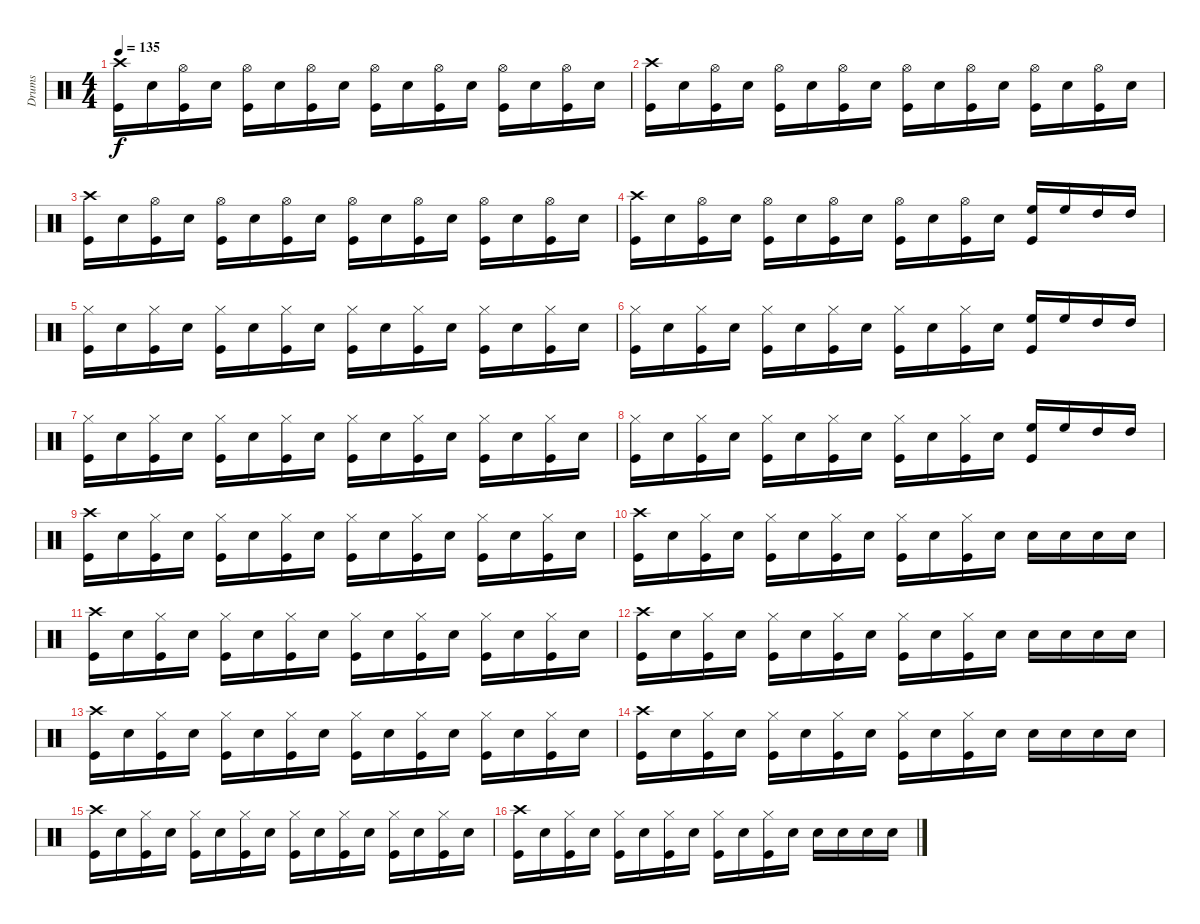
\track ("Drums" "Drums") {instrument percussion}
\staff {score}
\articulation defaults
\ts (4 4)
\tempo 135
\clef neutral
\ks c
("Crash high (hit)" "Kick (hit)").16{dy f} "Snare (hit) 2".16 ("Hi-Hat (open)" "Kick (hit)").16 "Snare (hit) 2".16 ("Hi-Hat (open)" "Kick (hit)").16 "Snare (hit) 2".16 ("Hi-Hat (open)" "Kick (hit)").16 "Snare (hit) 2".16 ("Hi-Hat (open)" "Kick (hit)").16 "Snare (hit) 2".16 ("Hi-Hat (open)" "Kick (hit)").16 "Snare (hit) 2".16 ("Hi-Hat (open)" "Kick (hit)").16 "Snare (hit) 2".16 ("Hi-Hat (open)" "Kick (hit)").16 "Snare (hit) 2".16 |
("Crash high (hit)" "Kick (hit)").16 "Snare (hit) 2".16 ("Hi-Hat (open)" "Kick (hit)").16 "Snare (hit) 2".16 ("Hi-Hat (open)" "Kick (hit)").16 "Snare (hit) 2".16 ("Hi-Hat (open)" "Kick (hit)").16 "Snare (hit) 2".16 ("Hi-Hat (open)" "Kick (hit)").16 "Snare (hit) 2".16 ("Hi-Hat (open)" "Kick (hit)").16 "Snare (hit) 2".16 ("Hi-Hat (open)" "Kick (hit)").16 "Snare (hit) 2".16 ("Hi-Hat (open)" "Kick (hit)").16 "Snare (hit) 2".16 |
("Crash high (hit)" "Kick (hit)").16 "Snare (hit) 2".16 ("Hi-Hat (open)" "Kick (hit)").16 "Snare (hit) 2".16 ("Hi-Hat (open)" "Kick (hit)").16 "Snare (hit) 2".16 ("Hi-Hat (open)" "Kick (hit)").16 "Snare (hit) 2".16 ("Hi-Hat (open)" "Kick (hit)").16 "Snare (hit) 2".16 ("Hi-Hat (open)" "Kick (hit)").16 "Snare (hit) 2".16 ("Hi-Hat (open)" "Kick (hit)").16 "Snare (hit) 2".16 ("Hi-Hat (open)" "Kick (hit)").16 "Snare (hit) 2".16 |
("Crash high (hit)" "Kick (hit)").16 "Snare (hit) 2".16 ("Hi-Hat (open)" "Kick (hit)").16 "Snare (hit) 2".16 ("Hi-Hat (open)" "Kick (hit)").16 "Snare (hit) 2".16 ("Hi-Hat (open)" "Kick (hit)").16 "Snare (hit) 2".16 ("Hi-Hat (open)" "Kick (hit)").16 "Snare (hit) 2".16 ("Hi-Hat (open)" "Kick (hit)").16 "Snare (hit) 2".16 ("High Floor Tom (hit)" "Kick (hit)").16 "High Floor Tom (hit)".16 "High Tom (hit)".16 "High Tom (hit)".16 |
("Hi-Hat (closed)" "Kick (hit)").16 "Snare (hit) 2".16 ("Hi-Hat (closed)" "Kick (hit)").16 "Snare (hit) 2".16 ("Hi-Hat (closed)" "Kick (hit)").16 "Snare (hit) 2".16 ("Hi-Hat (closed)" "Kick (hit)").16 "Snare (hit) 2".16 ("Hi-Hat (closed)" "Kick (hit)").16 "Snare (hit) 2".16 ("Hi-Hat (closed)" "Kick (hit)").16 "Snare (hit) 2".16 ("Hi-Hat (closed)" "Kick (hit)").16 "Snare (hit) 2".16 ("Hi-Hat (closed)" "Kick (hit)").16 "Snare (hit) 2".16 |
("Hi-Hat (closed)" "Kick (hit)").16 "Snare (hit) 2".16 ("Hi-Hat (closed)" "Kick (hit)").16 "Snare (hit) 2".16 ("Hi-Hat (closed)" "Kick (hit)").16 "Snare (hit) 2".16 ("Hi-Hat (closed)" "Kick (hit)").16 "Snare (hit) 2".16 ("Hi-Hat (closed)" "Kick (hit)").16 "Snare (hit) 2".16 ("Hi-Hat (closed)" "Kick (hit)").16 "Snare (hit) 2".16 ("High Floor Tom (hit)" "Kick (hit)").16 "High Floor Tom (hit)".16 "High Tom (hit)".16 "High Tom (hit)".16 |
("Hi-Hat (closed)" "Kick (hit)").16 "Snare (hit) 2".16 ("Hi-Hat (closed)" "Kick (hit)").16 "Snare (hit) 2".16 ("Hi-Hat (closed)" "Kick (hit)").16 "Snare (hit) 2".16 ("Hi-Hat (closed)" "Kick (hit)").16 "Snare (hit) 2".16 ("Hi-Hat (closed)" "Kick (hit)").16 "Snare (hit) 2".16 ("Hi-Hat (closed)" "Kick (hit)").16 "Snare (hit) 2".16 ("Hi-Hat (closed)" "Kick (hit)").16 "Snare (hit) 2".16 ("Hi-Hat (closed)" "Kick (hit)").16 "Snare (hit) 2".16 |
("Hi-Hat (closed)" "Kick (hit)").16 "Snare (hit) 2".16 ("Hi-Hat (closed)" "Kick (hit)").16 "Snare (hit) 2".16 ("Hi-Hat (closed)" "Kick (hit)").16 "Snare (hit) 2".16 ("Hi-Hat (closed)" "Kick (hit)").16 "Snare (hit) 2".16 ("Hi-Hat (closed)" "Kick (hit)").16 "Snare (hit) 2".16 ("Hi-Hat (closed)" "Kick (hit)").16 "Snare (hit) 2".16 ("High Floor Tom (hit)" "Kick (hit)").16 "High Floor Tom (hit)".16 "High Tom (hit)".16 "High Tom (hit)".16 |
("Crash high (hit)" "Kick (hit)").16 "Snare (hit) 2".16 ("Hi-Hat (closed)" "Kick (hit)").16 "Snare (hit) 2".16 ("Hi-Hat (closed)" "Kick (hit)").16 "Snare (hit) 2".16 ("Hi-Hat (closed)" "Kick (hit)").16 "Snare (hit) 2".16 ("Hi-Hat (closed)" "Kick (hit)").16 "Snare (hit) 2".16 ("Hi-Hat (closed)" "Kick (hit)").16 "Snare (hit) 2".16 ("Hi-Hat (closed)" "Kick (hit)").16 "Snare (hit) 2".16 ("Hi-Hat (closed)" "Kick (hit)").16 "Snare (hit) 2".16 |
("Crash high (hit)" "Kick (hit)").16 "Snare (hit) 2".16 ("Hi-Hat (closed)" "Kick (hit)").16 "Snare (hit) 2".16 ("Hi-Hat (closed)" "Kick (hit)").16 "Snare (hit) 2".16 ("Hi-Hat (closed)" "Kick (hit)").16 "Snare (hit) 2".16 ("Hi-Hat (closed)" "Kick (hit)").16 "Snare (hit) 2".16 ("Hi-Hat (closed)" "Kick (hit)").16 "Snare (hit) 2".16 "Snare (hit) 2".16 "Snare (hit) 2".16 "Snare (hit) 2".16 "Snare (hit) 2".16 |
("Crash high (hit)" "Kick (hit)").16 "Snare (hit) 2".16 ("Hi-Hat (closed)" "Kick (hit)").16 "Snare (hit) 2".16 ("Hi-Hat (closed)" "Kick (hit)").16 "Snare (hit) 2".16 ("Hi-Hat (closed)" "Kick (hit)").16 "Snare (hit) 2".16 ("Hi-Hat (closed)" "Kick (hit)").16 "Snare (hit) 2".16 ("Hi-Hat (closed)" "Kick (hit)").16 "Snare (hit) 2".16 ("Hi-Hat (closed)" "Kick (hit)").16 "Snare (hit) 2".16 ("Hi-Hat (closed)" "Kick (hit)").16 "Snare (hit) 2".16 |
("Crash high (hit)" "Kick (hit)").16 "Snare (hit) 2".16 ("Hi-Hat (closed)" "Kick (hit)").16 "Snare (hit) 2".16 ("Hi-Hat (closed)" "Kick (hit)").16 "Snare (hit) 2".16 ("Hi-Hat (closed)" "Kick (hit)").16 "Snare (hit) 2".16 ("Hi-Hat (closed)" "Kick (hit)").16 "Snare (hit) 2".16 ("Hi-Hat (closed)" "Kick (hit)").16 "Snare (hit) 2".16 "Snare (hit) 2".16 "Snare (hit) 2".16 "Snare (hit) 2".16 "Snare (hit) 2".16 |
("Crash high (hit)" "Kick (hit)").16 "Snare (hit) 2".16 ("Hi-Hat (closed)" "Kick (hit)").16 "Snare (hit) 2".16 ("Hi-Hat (closed)" "Kick (hit)").16 "Snare (hit) 2".16 ("Hi-Hat (closed)" "Kick (hit)").16 "Snare (hit) 2".16 ("Hi-Hat (closed)" "Kick (hit)").16 "Snare (hit) 2".16 ("Hi-Hat (closed)" "Kick (hit)").16 "Snare (hit) 2".16 ("Hi-Hat (closed)" "Kick (hit)").16 "Snare (hit) 2".16 ("Hi-Hat (closed)" "Kick (hit)").16 "Snare (hit) 2".16 |
("Crash high (hit)" "Kick (hit)").16 "Snare (hit) 2".16 ("Hi-Hat (closed)" "Kick (hit)").16 "Snare (hit) 2".16 ("Hi-Hat (closed)" "Kick (hit)").16 "Snare (hit) 2".16 ("Hi-Hat (closed)" "Kick (hit)").16 "Snare (hit) 2".16 ("Hi-Hat (closed)" "Kick (hit)").16 "Snare (hit) 2".16 ("Hi-Hat (closed)" "Kick (hit)").16 "Snare (hit) 2".16 "Snare (hit) 2".16 "Snare (hit) 2".16 "Snare (hit) 2".16 "Snare (hit) 2".16 |
("Crash high (hit)" "Kick (hit)").16 "Snare (hit) 2".16 ("Hi-Hat (closed)" "Kick (hit)").16 "Snare (hit) 2".16 ("Hi-Hat (closed)" "Kick (hit)").16 "Snare (hit) 2".16 ("Hi-Hat (closed)" "Kick (hit)").16 "Snare (hit) 2".16 ("Hi-Hat (closed)" "Kick (hit)").16 "Snare (hit) 2".16 ("Hi-Hat (closed)" "Kick (hit)").16 "Snare (hit) 2".16 ("Hi-Hat (closed)" "Kick (hit)").16 "Snare (hit) 2".16 ("Hi-Hat (closed)" "Kick (hit)").16 "Snare (hit) 2".16 |
("Crash high (hit)" "Kick (hit)").16 "Snare (hit) 2".16 ("Hi-Hat (closed)" "Kick (hit)").16 "Snare (hit) 2".16 ("Hi-Hat (closed)" "Kick (hit)").16 "Snare (hit) 2".16 ("Hi-Hat (closed)" "Kick (hit)").16 "Snare (hit) 2".16 ("Hi-Hat (closed)" "Kick (hit)").16 "Snare (hit) 2".16 ("Hi-Hat (closed)" "Kick (hit)").16 "Snare (hit) 2".16 "Snare (hit) 2".16 "Snare (hit) 2".16 "Snare (hit) 2".16 "Snare (hit) 2".16
